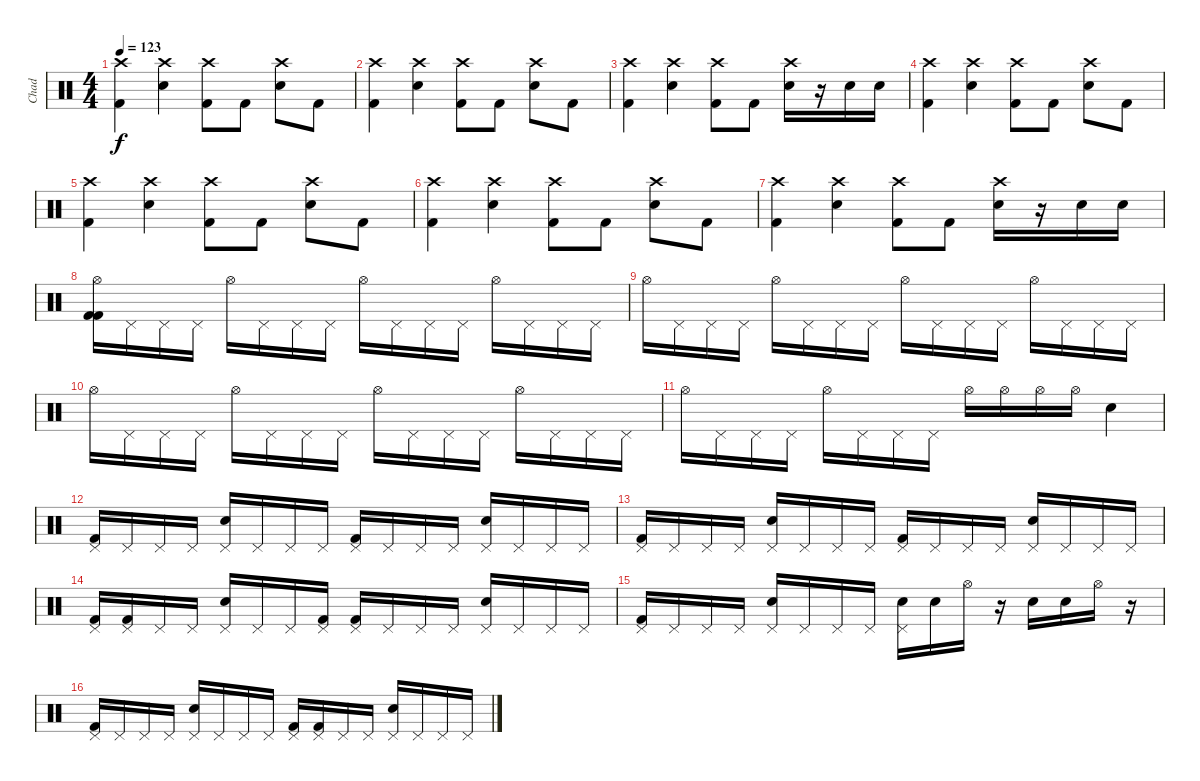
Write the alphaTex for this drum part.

\track ("Chad" "Chad") {instrument percussion}
\staff {score}
\articulation defaults
\ts (4 4)
\tempo 123
\clef neutral
\ks c
("Crash high (hit)" "Kick (hit) 2").4{dy f} ("Crash high (hit)" "Electric Snare (hit)").4 ("Crash high (hit)" "Kick (hit) 2").8 "Kick (hit) 2".8 ("Crash high (hit)" "Electric Snare (hit)").8 "Kick (hit) 2".8 |
("Crash high (hit)" "Kick (hit) 2").4 ("Crash high (hit)" "Electric Snare (hit)").4 ("Crash high (hit)" "Kick (hit) 2").8 "Kick (hit) 2".8 ("Crash high (hit)" "Electric Snare (hit)").8 "Kick (hit) 2".8 |
("Crash high (hit)" "Kick (hit) 2").4 ("Crash high (hit)" "Electric Snare (hit)").4 ("Crash high (hit)" "Kick (hit) 2").8 "Kick (hit) 2".8 ("Crash high (hit)" "Electric Snare (hit)").16 r.16 "Electric Snare (hit)".16 "Electric Snare (hit)".16 |
("Crash high (hit)" "Kick (hit) 2").4 ("Crash high (hit)" "Electric Snare (hit)").4 ("Crash high (hit)" "Kick (hit) 2").8 "Kick (hit) 2".8 ("Crash high (hit)" "Electric Snare (hit)").8 "Kick (hit) 2".8 |
("Crash high (hit)" "Kick (hit) 2").4 ("Crash high (hit)" "Electric Snare (hit)").4 ("Crash high (hit)" "Kick (hit) 2").8 "Kick (hit) 2".8 ("Crash high (hit)" "Electric Snare (hit)").8 "Kick (hit) 2".8 |
("Crash high (hit)" "Kick (hit) 2").4 ("Crash high (hit)" "Electric Snare (hit)").4 ("Crash high (hit)" "Kick (hit) 2").8 "Kick (hit) 2".8 ("Crash high (hit)" "Electric Snare (hit)").8 "Kick (hit) 2".8 |
("Crash high (hit)" "Kick (hit) 2").4 ("Crash high (hit)" "Electric Snare (hit)").4 ("Crash high (hit)" "Kick (hit) 2").8 "Kick (hit) 2".8 ("Crash high (hit)" "Electric Snare (hit)").16 r.16 "Electric Snare (hit)".16 "Electric Snare (hit)".16 |
("Hi-Hat (open)" "Kick (hit) 2" "Kick (hit) 2").16{volume 5} "Pedal Hi-Hat (hit)".16 "Pedal Hi-Hat (hit)".16 "Pedal Hi-Hat (hit)".16 "Hi-Hat (open)".16 "Pedal Hi-Hat (hit)".16 "Pedal Hi-Hat (hit)".16 "Pedal Hi-Hat (hit)".16 "Hi-Hat (open)".16 "Pedal Hi-Hat (hit)".16 "Pedal Hi-Hat (hit)".16 "Pedal Hi-Hat (hit)".16 "Hi-Hat (open)".16 "Pedal Hi-Hat (hit)".16 "Pedal Hi-Hat (hit)".16 "Pedal Hi-Hat (hit)".16 |
"Hi-Hat (open)".16 "Pedal Hi-Hat (hit)".16 "Pedal Hi-Hat (hit)".16 "Pedal Hi-Hat (hit)".16 "Hi-Hat (open)".16 "Pedal Hi-Hat (hit)".16 "Pedal Hi-Hat (hit)".16 "Pedal Hi-Hat (hit)".16 "Hi-Hat (open)".16 "Pedal Hi-Hat (hit)".16 "Pedal Hi-Hat (hit)".16 "Pedal Hi-Hat (hit)".16 "Hi-Hat (open)".16 "Pedal Hi-Hat (hit)".16 "Pedal Hi-Hat (hit)".16 "Pedal Hi-Hat (hit)".16 |
"Hi-Hat (open)".16 "Pedal Hi-Hat (hit)".16 "Pedal Hi-Hat (hit)".16 "Pedal Hi-Hat (hit)".16 "Hi-Hat (open)".16 "Pedal Hi-Hat (hit)".16 "Pedal Hi-Hat (hit)".16 "Pedal Hi-Hat (hit)".16 "Hi-Hat (open)".16 "Pedal Hi-Hat (hit)".16 "Pedal Hi-Hat (hit)".16 "Pedal Hi-Hat (hit)".16 "Hi-Hat (open)".16 "Pedal Hi-Hat (hit)".16 "Pedal Hi-Hat (hit)".16 "Pedal Hi-Hat (hit)".16 |
"Hi-Hat (open)".16{volume 10} "Pedal Hi-Hat (hit)".16 "Pedal Hi-Hat (hit)".16 "Pedal Hi-Hat (hit)".16 "Hi-Hat (open)".16 "Pedal Hi-Hat (hit)".16 "Pedal Hi-Hat (hit)".16 "Pedal Hi-Hat (hit)".16 "Hi-Hat (open)".16 "Hi-Hat (open)".16 "Hi-Hat (open)".16 "Hi-Hat (open)".16 "Electric Snare (hit)".4 |
("Pedal Hi-Hat (hit)" "Kick (hit) 2").16 "Pedal Hi-Hat (hit)".16 "Pedal Hi-Hat (hit)".16 "Pedal Hi-Hat (hit)".16 ("Pedal Hi-Hat (hit)" "Electric Snare (hit)").16 "Pedal Hi-Hat (hit)".16 "Pedal Hi-Hat (hit)".16 "Pedal Hi-Hat (hit)".16 ("Pedal Hi-Hat (hit)" "Kick (hit) 2").16 "Pedal Hi-Hat (hit)".16 "Pedal Hi-Hat (hit)".16 "Pedal Hi-Hat (hit)".16 ("Pedal Hi-Hat (hit)" "Electric Snare (hit)").16 "Pedal Hi-Hat (hit)".16 "Pedal Hi-Hat (hit)".16 "Pedal Hi-Hat (hit)".16 |
("Pedal Hi-Hat (hit)" "Kick (hit) 2").16 "Pedal Hi-Hat (hit)".16 "Pedal Hi-Hat (hit)".16 "Pedal Hi-Hat (hit)".16 ("Pedal Hi-Hat (hit)" "Electric Snare (hit)").16 "Pedal Hi-Hat (hit)".16 "Pedal Hi-Hat (hit)".16 "Pedal Hi-Hat (hit)".16 ("Pedal Hi-Hat (hit)" "Kick (hit) 2").16 "Pedal Hi-Hat (hit)".16 "Pedal Hi-Hat (hit)".16 "Pedal Hi-Hat (hit)".16 ("Pedal Hi-Hat (hit)" "Electric Snare (hit)").16 "Pedal Hi-Hat (hit)".16 "Pedal Hi-Hat (hit)".16 "Pedal Hi-Hat (hit)".16 |
("Pedal Hi-Hat (hit)" "Kick (hit) 2").16 ("Pedal Hi-Hat (hit)" "Kick (hit) 2").16 "Pedal Hi-Hat (hit)".16 "Pedal Hi-Hat (hit)".16 ("Pedal Hi-Hat (hit)" "Electric Snare (hit)").16 "Pedal Hi-Hat (hit)".16 "Pedal Hi-Hat (hit)".16 ("Pedal Hi-Hat (hit)" "Kick (hit) 2").16 ("Pedal Hi-Hat (hit)" "Kick (hit) 2").16 "Pedal Hi-Hat (hit)".16 "Pedal Hi-Hat (hit)".16 "Pedal Hi-Hat (hit)".16 ("Pedal Hi-Hat (hit)" "Electric Snare (hit)").16 "Pedal Hi-Hat (hit)".16 "Pedal Hi-Hat (hit)".16 "Pedal Hi-Hat (hit)".16 |
("Pedal Hi-Hat (hit)" "Kick (hit) 2").16 "Pedal Hi-Hat (hit)".16 "Pedal Hi-Hat (hit)".16 "Pedal Hi-Hat (hit)".16 ("Pedal Hi-Hat (hit)" "Electric Snare (hit)").16 "Pedal Hi-Hat (hit)".16 "Pedal Hi-Hat (hit)".16 "Pedal Hi-Hat (hit)".16 ("Pedal Hi-Hat (hit)" "Electric Snare (hit)").16 "Electric Snare (hit)".16 "Hi-Hat (open)".16 r.16 "Electric Snare (hit)".16 "Electric Snare (hit)".16 "Hi-Hat (open)".16 r.16 |
("Pedal Hi-Hat (hit)" "Kick (hit) 2").16 "Pedal Hi-Hat (hit)".16 "Pedal Hi-Hat (hit)".16 "Pedal Hi-Hat (hit)".16 ("Pedal Hi-Hat (hit)" "Electric Snare (hit)").16 "Pedal Hi-Hat (hit)".16 "Pedal Hi-Hat (hit)".16 "Pedal Hi-Hat (hit)".16 ("Pedal Hi-Hat (hit)" "Kick (hit) 2").16 ("Pedal Hi-Hat (hit)" "Kick (hit) 2").16 "Pedal Hi-Hat (hit)".16 "Pedal Hi-Hat (hit)".16 ("Pedal Hi-Hat (hit)" "Electric Snare (hit)").16 "Pedal Hi-Hat (hit)".16 "Pedal Hi-Hat (hit)".16 "Pedal Hi-Hat (hit)".16
